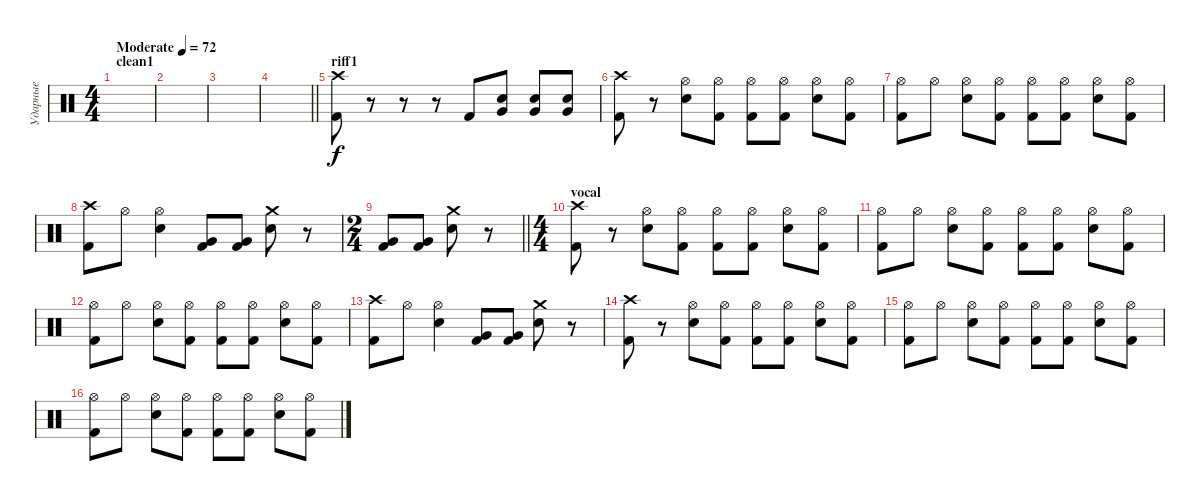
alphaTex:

\track ("Ударные" "Ударные") {instrument percussion}
\staff {score}
\articulation defaults
\ts (4 4)
\section ("" "clean1")
\tempo (72 "Moderate")
\clef neutral
\ks c
|
|
|
\barLineRight lightlight
|
\section ("" "riff1")
("Crash high (hit)" "Kick (hit) 2").8 r.8 r.8 r.8 "Kick (hit) 2".8 ("Snare (hit) 2" "Very Low Tom (hit)").8 ("Snare (hit) 2" "Very Low Tom (hit)").8 ("Snare (hit) 2" "Very Low Tom (hit)").8 |
("Crash high (hit)" "Kick (hit) 2").8 r.8 ("Hi-Hat (open)" "Snare (hit) 2").8 ("Hi-Hat (open)" "Kick (hit) 2").8 ("Hi-Hat (open)" "Kick (hit) 2").8 ("Hi-Hat (open)" "Kick (hit) 2").8 ("Hi-Hat (open)" "Snare (hit) 2").8 ("Hi-Hat (open)" "Kick (hit) 2").8 |
("Hi-Hat (open)" "Kick (hit) 2").8 "Hi-Hat (open)".8 ("Hi-Hat (open)" "Snare (hit) 2").8 ("Hi-Hat (open)" "Kick (hit) 2").8 ("Hi-Hat (open)" "Kick (hit) 2").8 ("Hi-Hat (open)" "Kick (hit) 2").8 ("Hi-Hat (open)" "Snare (hit) 2").8 ("Hi-Hat (open)" "Kick (hit) 2").8 |
("Crash high (hit)" "Kick (hit) 2").8 "Hi-Hat (open)".8 ("Hi-Hat (open)" "Snare (hit) 2").4 ("Very Low Tom (hit)" "Kick (hit) 2").8 ("Very Low Tom (hit)" "Kick (hit) 2").8 ("Crash medium (hit)" "Snare (hit) 2").8 r.8 |
\ts (2 4)
\barLineRight lightlight
("Very Low Tom (hit)" "Kick (hit) 2").8 ("Very Low Tom (hit)" "Kick (hit) 2").8 ("Crash medium (hit)" "Snare (hit) 2").8 r.8 |
\ts (4 4)
\section ("" "vocal")
("Crash high (hit)" "Kick (hit) 2").8 r.8 ("Hi-Hat (open)" "Snare (hit) 2").8 ("Hi-Hat (open)" "Kick (hit) 2").8 ("Hi-Hat (open)" "Kick (hit) 2").8 ("Hi-Hat (open)" "Kick (hit) 2").8 ("Hi-Hat (open)" "Snare (hit) 2").8 ("Hi-Hat (open)" "Kick (hit) 2").8 |
("Hi-Hat (open)" "Kick (hit) 2").8 "Hi-Hat (open)".8 ("Hi-Hat (open)" "Snare (hit) 2").8 ("Hi-Hat (open)" "Kick (hit) 2").8 ("Hi-Hat (open)" "Kick (hit) 2").8 ("Hi-Hat (open)" "Kick (hit) 2").8 ("Hi-Hat (open)" "Snare (hit) 2").8 ("Hi-Hat (open)" "Kick (hit) 2").8 |
("Hi-Hat (open)" "Kick (hit) 2").8 "Hi-Hat (open)".8 ("Hi-Hat (open)" "Snare (hit) 2").8 ("Hi-Hat (open)" "Kick (hit) 2").8 ("Hi-Hat (open)" "Kick (hit) 2").8 ("Hi-Hat (open)" "Kick (hit) 2").8 ("Hi-Hat (open)" "Snare (hit) 2").8 ("Hi-Hat (open)" "Kick (hit) 2").8 |
("Crash high (hit)" "Kick (hit) 2").8 "Hi-Hat (open)".8 ("Hi-Hat (open)" "Snare (hit) 2").4 ("Very Low Tom (hit)" "Kick (hit) 2").8 ("Very Low Tom (hit)" "Kick (hit) 2").8 ("Crash medium (hit)" "Snare (hit) 2").8 r.8 |
("Crash high (hit)" "Kick (hit) 2").8 r.8 ("Hi-Hat (open)" "Snare (hit) 2").8 ("Hi-Hat (open)" "Kick (hit) 2").8 ("Hi-Hat (open)" "Kick (hit) 2").8 ("Hi-Hat (open)" "Kick (hit) 2").8 ("Hi-Hat (open)" "Snare (hit) 2").8 ("Hi-Hat (open)" "Kick (hit) 2").8 |
("Hi-Hat (open)" "Kick (hit) 2").8 "Hi-Hat (open)".8 ("Hi-Hat (open)" "Snare (hit) 2").8 ("Hi-Hat (open)" "Kick (hit) 2").8 ("Hi-Hat (open)" "Kick (hit) 2").8 ("Hi-Hat (open)" "Kick (hit) 2").8 ("Hi-Hat (open)" "Snare (hit) 2").8 ("Hi-Hat (open)" "Kick (hit) 2").8 |
("Hi-Hat (open)" "Kick (hit) 2").8 "Hi-Hat (open)".8 ("Hi-Hat (open)" "Snare (hit) 2").8 ("Hi-Hat (open)" "Kick (hit) 2").8 ("Hi-Hat (open)" "Kick (hit) 2").8 ("Hi-Hat (open)" "Kick (hit) 2").8 ("Hi-Hat (open)" "Snare (hit) 2").8 ("Hi-Hat (open)" "Kick (hit) 2").8
